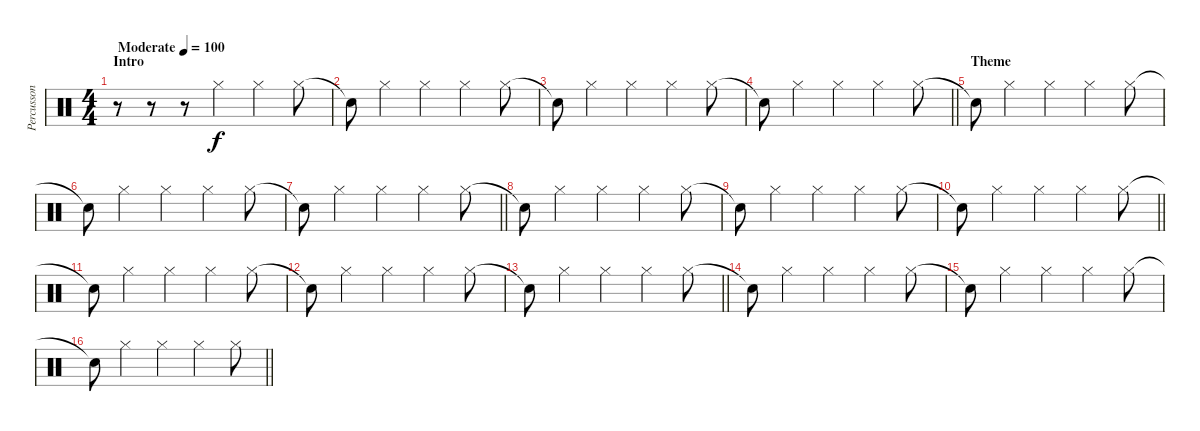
\track ("Percusson" "Percusson") {instrument percussion}
\staff {score}
\articulation defaults
\ts (4 4)
\section ("" "Intro")
\tempo (100 "Moderate")
\clef neutral
\ks c
r.8{dy f} r.8 r.8 "Hi-Hat (closed)".4 "Hi-Hat (closed)".4 "Hi-Hat (closed)".8 |
"Snare (hit)"{t}.8 "Hi-Hat (closed)".4 "Hi-Hat (closed)".4 "Hi-Hat (closed)".4 "Hi-Hat (closed)".8 |
"Snare (hit)"{t}.8 "Hi-Hat (closed)".4 "Hi-Hat (closed)".4 "Hi-Hat (closed)".4 "Hi-Hat (closed)".8 |
\barLineRight lightlight "Snare (hit)"{t}.8 "Hi-Hat (closed)".4 "Hi-Hat (closed)".4 "Hi-Hat (closed)".4 "Hi-Hat (closed)".8
|
\section ("" "Theme")
"Snare (hit)"{t}.8 "Hi-Hat (closed)".4 "Hi-Hat (closed)".4 "Hi-Hat (closed)".4 "Hi-Hat (closed)".8 |
"Snare (hit)"{t}.8 "Hi-Hat (closed)".4 "Hi-Hat (closed)".4 "Hi-Hat (closed)".4 "Hi-Hat (closed)".8 |
\barLineRight lightlight "Snare (hit)"{t}.8 "Hi-Hat (closed)".4 "Hi-Hat (closed)".4 "Hi-Hat (closed)".4 "Hi-Hat (closed)".8
|
"Snare (hit)"{t}.8 "Hi-Hat (closed)".4 "Hi-Hat (closed)".4 "Hi-Hat (closed)".4 "Hi-Hat (closed)".8 |
"Snare (hit)"{t}.8 "Hi-Hat (closed)".4 "Hi-Hat (closed)".4 "Hi-Hat (closed)".4 "Hi-Hat (closed)".8 |
\barLineRight lightlight "Snare (hit)"{t}.8 "Hi-Hat (closed)".4 "Hi-Hat (closed)".4 "Hi-Hat (closed)".4 "Hi-Hat (closed)".8
|
"Snare (hit)"{t}.8 "Hi-Hat (closed)".4 "Hi-Hat (closed)".4 "Hi-Hat (closed)".4 "Hi-Hat (closed)".8 |
"Snare (hit)"{t}.8 "Hi-Hat (closed)".4 "Hi-Hat (closed)".4 "Hi-Hat (closed)".4 "Hi-Hat (closed)".8 |
\barLineRight lightlight "Snare (hit)"{t}.8 "Hi-Hat (closed)".4 "Hi-Hat (closed)".4 "Hi-Hat (closed)".4 "Hi-Hat (closed)".8
|
"Snare (hit)"{t}.8 "Hi-Hat (closed)".4 "Hi-Hat (closed)".4 "Hi-Hat (closed)".4 "Hi-Hat (closed)".8 |
"Snare (hit)"{t}.8 "Hi-Hat (closed)".4 "Hi-Hat (closed)".4 "Hi-Hat (closed)".4 "Hi-Hat (closed)".8 |
\barLineRight lightlight "Snare (hit)"{t}.8 "Hi-Hat (closed)".4 "Hi-Hat (closed)".4 "Hi-Hat (closed)".4 "Hi-Hat (closed)".8
